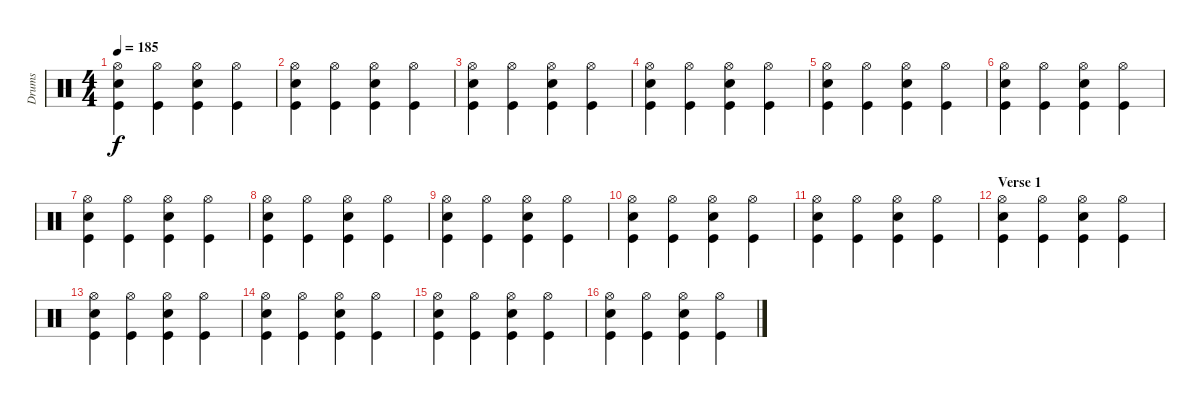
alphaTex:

\track ("Drums" "Drums") {instrument percussion}
\staff {score}
\articulation defaults
\ts (4 4)
\tempo 185
\clef neutral
\ks c
("Hi-Hat (open)" "Kick (hit)" "Snare (hit) 2").4{dy f} ("Hi-Hat (open)" "Kick (hit)").4 ("Hi-Hat (open)" "Kick (hit)" "Snare (hit) 2").4 ("Hi-Hat (open)" "Kick (hit)").4 |
("Hi-Hat (open)" "Kick (hit)" "Snare (hit) 2").4 ("Hi-Hat (open)" "Kick (hit)").4 ("Hi-Hat (open)" "Kick (hit)" "Snare (hit) 2").4 ("Hi-Hat (open)" "Kick (hit)").4 |
("Hi-Hat (open)" "Kick (hit)" "Snare (hit) 2").4 ("Hi-Hat (open)" "Kick (hit)").4 ("Hi-Hat (open)" "Kick (hit)" "Snare (hit) 2").4 ("Hi-Hat (open)" "Kick (hit)").4 |
("Hi-Hat (open)" "Kick (hit)" "Snare (hit) 2").4 ("Hi-Hat (open)" "Kick (hit)").4 ("Hi-Hat (open)" "Kick (hit)" "Snare (hit) 2").4 ("Hi-Hat (open)" "Kick (hit)").4 |
("Hi-Hat (open)" "Kick (hit)" "Snare (hit) 2").4 ("Hi-Hat (open)" "Kick (hit)").4 ("Hi-Hat (open)" "Kick (hit)" "Snare (hit) 2").4 ("Hi-Hat (open)" "Kick (hit)").4 |
("Hi-Hat (open)" "Kick (hit)" "Snare (hit) 2").4 ("Hi-Hat (open)" "Kick (hit)").4 ("Hi-Hat (open)" "Kick (hit)" "Snare (hit) 2").4 ("Hi-Hat (open)" "Kick (hit)").4 |
("Hi-Hat (open)" "Kick (hit)" "Snare (hit) 2").4 ("Hi-Hat (open)" "Kick (hit)").4 ("Hi-Hat (open)" "Kick (hit)" "Snare (hit) 2").4 ("Hi-Hat (open)" "Kick (hit)").4 |
("Hi-Hat (open)" "Kick (hit)" "Snare (hit) 2").4 ("Hi-Hat (open)" "Kick (hit)").4 ("Hi-Hat (open)" "Kick (hit)" "Snare (hit) 2").4 ("Hi-Hat (open)" "Kick (hit)").4 |
("Hi-Hat (open)" "Kick (hit)" "Snare (hit) 2").4 ("Hi-Hat (open)" "Kick (hit)").4 ("Hi-Hat (open)" "Kick (hit)" "Snare (hit) 2").4 ("Hi-Hat (open)" "Kick (hit)").4 |
("Hi-Hat (open)" "Kick (hit)" "Snare (hit) 2").4 ("Hi-Hat (open)" "Kick (hit)").4 ("Hi-Hat (open)" "Kick (hit)" "Snare (hit) 2").4 ("Hi-Hat (open)" "Kick (hit)").4 |
("Hi-Hat (open)" "Kick (hit)" "Snare (hit) 2").4 ("Hi-Hat (open)" "Kick (hit)").4 ("Hi-Hat (open)" "Kick (hit)" "Snare (hit) 2").4 ("Hi-Hat (open)" "Kick (hit)").4 |
\section ("" "Verse 1")
("Hi-Hat (open)" "Kick (hit)" "Snare (hit) 2").4 ("Hi-Hat (open)" "Kick (hit)").4 ("Hi-Hat (open)" "Kick (hit)" "Snare (hit) 2").4 ("Hi-Hat (open)" "Kick (hit)").4 |
("Hi-Hat (open)" "Kick (hit)" "Snare (hit) 2").4 ("Hi-Hat (open)" "Kick (hit)").4 ("Hi-Hat (open)" "Kick (hit)" "Snare (hit) 2").4 ("Hi-Hat (open)" "Kick (hit)").4 |
("Hi-Hat (open)" "Kick (hit)" "Snare (hit) 2").4 ("Hi-Hat (open)" "Kick (hit)").4 ("Hi-Hat (open)" "Kick (hit)" "Snare (hit) 2").4 ("Hi-Hat (open)" "Kick (hit)").4 |
("Hi-Hat (open)" "Kick (hit)" "Snare (hit) 2").4 ("Hi-Hat (open)" "Kick (hit)").4 ("Hi-Hat (open)" "Kick (hit)" "Snare (hit) 2").4 ("Hi-Hat (open)" "Kick (hit)").4 |
("Hi-Hat (open)" "Kick (hit)" "Snare (hit) 2").4 ("Hi-Hat (open)" "Kick (hit)").4 ("Hi-Hat (open)" "Kick (hit)" "Snare (hit) 2").4 ("Hi-Hat (open)" "Kick (hit)").4
